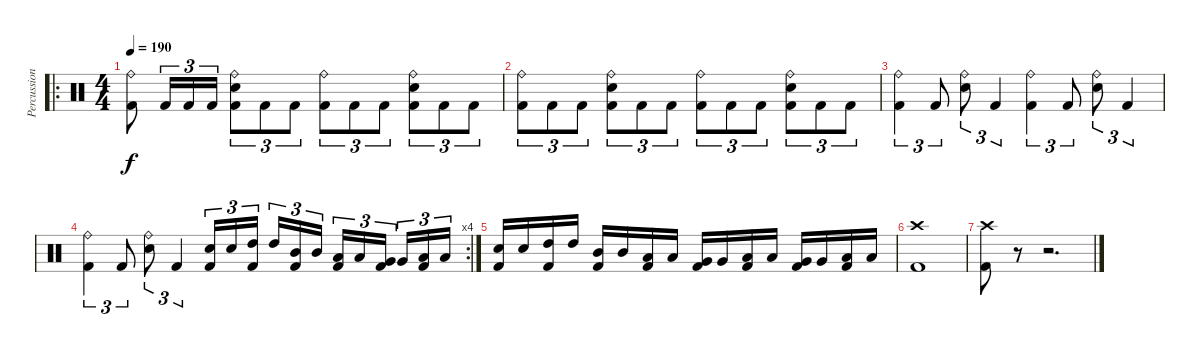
\track ("Percussion" "Percussion") {instrument percussion}
\staff {score}
\articulation defaults
\ro
\ts (4 4)
\tempo 190
\clef neutral
\ks c
("Ride (bell)" "Kick (hit) 2").8{dy f} "Kick (hit) 2".16{tu (3 2)} "Kick (hit) 2".16{tu (3 2)} "Kick (hit) 2".16{tu (3 2)} ("Ride (bell)" "Snare (hit) 2" "Kick (hit) 2").8{tu (3 2)} "Kick (hit) 2".8{tu (3 2)} "Kick (hit) 2".8{tu (3 2)} ("Ride (bell)" "Kick (hit) 2").8{tu (3 2)} "Kick (hit) 2".8{tu (3 2)} "Kick (hit) 2".8{tu (3 2)} ("Ride (bell)" "Snare (hit) 2" "Kick (hit) 2").8{tu (3 2)} "Kick (hit) 2".8{tu (3 2)} "Kick (hit) 2".8{tu (3 2)} |
("Ride (bell)" "Kick (hit) 2").8{tu (3 2)} "Kick (hit) 2".8{tu (3 2)} "Kick (hit) 2".8{tu (3 2)} ("Ride (bell)" "Snare (hit) 2" "Kick (hit) 2").8{tu (3 2)} "Kick (hit) 2".8{tu (3 2)} "Kick (hit) 2".8{tu (3 2)} ("Ride (bell)" "Kick (hit) 2").8{tu (3 2)} "Kick (hit) 2".8{tu (3 2)} "Kick (hit) 2".8{tu (3 2)} ("Ride (bell)" "Snare (hit) 2" "Kick (hit) 2").8{tu (3 2)} "Kick (hit) 2".8{tu (3 2)} "Kick (hit) 2".8{tu (3 2)} |
("Ride (bell)" "Kick (hit) 2").4{tu (3 2)} "Kick (hit) 2".8{tu (3 2)} ("Ride (bell)" "Snare (hit) 2").8{tu (3 2)} "Kick (hit) 2".4{tu (3 2)} ("Ride (bell)" "Kick (hit) 2").4{tu (3 2)} "Kick (hit) 2".8{tu (3 2)} ("Ride (bell)" "Snare (hit) 2").8{tu (3 2)} "Kick (hit) 2".4{tu (3 2)} |
\rc 4
("Ride (bell)" "Kick (hit) 2").4{tu (3 2)} "Kick (hit) 2".8{tu (3 2)} ("Ride (bell)" "Snare (hit) 2").8{tu (3 2)} "Kick (hit) 2".4{tu (3 2)} ("Snare (hit) 2" "Kick (hit) 2").16{tu (3 2)} "Snare (hit) 2".16{tu (3 2)} ("High Tom (hit)" "Kick (hit) 2").16{tu (3 2)} "High Tom (hit)".16{tu (3 2)} ("Mid Tom (hit)" "Kick (hit) 2").16{tu (3 2)} "Mid Tom (hit)".16{tu (3 2)} ("Low Tom (hit)" "Kick (hit) 2").16{tu (3 2)} "Low Tom (hit)".16{tu (3 2)} ("Very Low Tom (hit)" "Kick (hit) 2").16{tu (3 2)} "Very Low Tom (hit)".16{tu (3 2)} ("Low Floor Tom (hit)" "Kick (hit) 2").16{tu (3 2)} "Low Floor Tom (hit)".16{tu (3 2)} |
("Kick (hit) 2" "Snare (hit) 2").16 "Snare (hit) 2".16 ("Kick (hit) 2" "High Tom (hit)").16 "High Tom (hit)".16 ("Kick (hit) 2" "Mid Tom (hit)").16 "Mid Tom (hit)".16 ("Kick (hit) 2" "Low Tom (hit)").16 "Low Tom (hit)".16 ("Kick (hit) 2" "Very Low Tom (hit)").16 "Very Low Tom (hit)".16 ("Kick (hit) 2" "Low Floor Tom (hit)").16 "Low Floor Tom (hit)".16 ("Kick (hit) 2" "Very Low Tom (hit)").16 "Very Low Tom (hit)".16 ("Kick (hit) 2" "Low Tom (hit)").16 "Low Tom (hit)".16 |
("Kick (hit) 2" "Crash high (hit)").1 |
("Kick (hit) 2" "Crash high (hit)").8 r.8 r.2{d}
